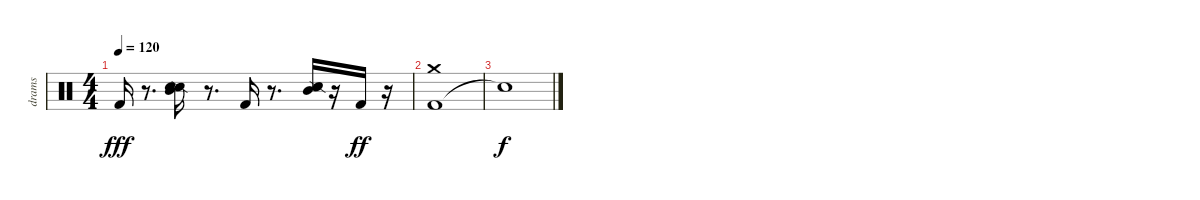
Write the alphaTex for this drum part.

\track ("drams" "drams") {instrument percussion}
\staff {score}
\articulation defaults
\ts (4 4)
\tempo 120
\clef neutral
\ks c "Kick (hit) 2".16{dy fff}
r.8{d} ("Snare (side stick) 2" "Snare (hit) 2" "Mid Tom (hit)").16 r.8{d} "Kick (hit) 2".16 r.8{d} ("Snare (side stick) 2" "Snare (hit) 2" "Mid Tom (hit)").16 r.16 "Kick (hit) 2".16{dy ff} r.16 |
("Kick (hit) 2" "Crash medium (hit)").1 |
"Snare (hit)"{t}.1{dy f}
